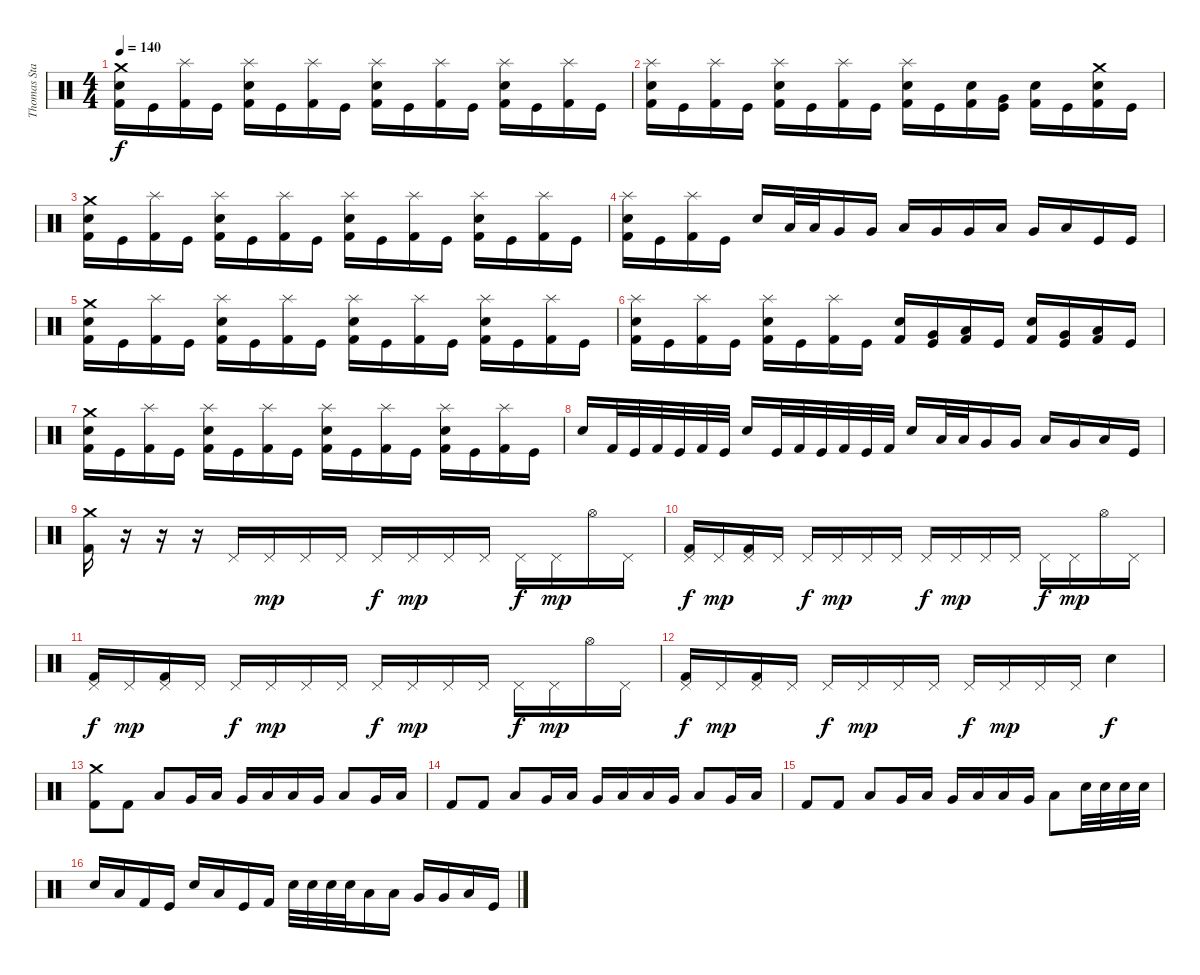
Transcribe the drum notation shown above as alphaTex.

\track ("Thomas Stauch" "Thomas Sta") {instrument percussion}
\staff {score}
\articulation defaults
\ts (4 4)
\tempo 140
\clef neutral
\ks c
("Crash medium (hit)" "Electric Snare (hit)" "Kick (hit) 2").16{dy f} "Kick (hit)".16 ("Splash (hit)" "Kick (hit) 2").16 "Kick (hit)".16 ("Splash (hit)" "Electric Snare (hit)" "Kick (hit) 2").16 "Kick (hit)".16 ("Splash (hit)" "Kick (hit) 2").16 "Kick (hit)".16 ("Splash (hit)" "Electric Snare (hit)" "Kick (hit) 2").16 "Kick (hit)".16 ("Splash (hit)" "Kick (hit) 2").16 "Kick (hit)".16 ("Splash (hit)" "Electric Snare (hit)" "Kick (hit) 2").16 "Kick (hit)".16 ("Splash (hit)" "Kick (hit) 2").16 "Kick (hit)".16 |
("Splash (hit)" "Electric Snare (hit)" "Kick (hit) 2").16 "Kick (hit)".16 ("Splash (hit)" "Kick (hit) 2").16 "Kick (hit)".16 ("Splash (hit)" "Electric Snare (hit)" "Kick (hit) 2").16 "Kick (hit)".16 ("Splash (hit)" "Kick (hit) 2").16 "Kick (hit)".16 ("Splash (hit)" "Electric Snare (hit)" "Kick (hit) 2").16 "Kick (hit)".16 ("Electric Snare (hit)" "Kick (hit) 2").16 ("Very Low Tom (hit)" "Kick (hit)").16 ("Electric Snare (hit)" "Kick (hit) 2").16 "Kick (hit)".16 ("Crash medium (hit)" "Electric Snare (hit)" "Kick (hit) 2").16 "Kick (hit)".16 |
("Crash medium (hit)" "Electric Snare (hit)" "Kick (hit) 2").16 "Kick (hit)".16 ("Splash (hit)" "Kick (hit) 2").16 "Kick (hit)".16 ("Splash (hit)" "Electric Snare (hit)" "Kick (hit) 2").16 "Kick (hit)".16 ("Splash (hit)" "Kick (hit) 2").16 "Kick (hit)".16 ("Splash (hit)" "Electric Snare (hit)" "Kick (hit) 2").16 "Kick (hit)".16 ("Splash (hit)" "Kick (hit) 2").16 "Kick (hit)".16 ("Splash (hit)" "Electric Snare (hit)" "Kick (hit) 2").16 "Kick (hit)".16 ("Splash (hit)" "Kick (hit) 2").16 "Kick (hit)".16 |
("Splash (hit)" "Electric Snare (hit)" "Kick (hit) 2").16 "Kick (hit)".16 ("Splash (hit)" "Kick (hit) 2").16 "Kick (hit)".16 "Electric Snare (hit)".16 "Low Tom (hit)".32 "Low Tom (hit)".32 "Very Low Tom (hit)".16 "Very Low Tom (hit)".16 "Low Tom (hit)".16 "Very Low Tom (hit)".16 "Very Low Tom (hit)".16 "Low Floor Tom (hit)".16 "Very Low Tom (hit)".16 "Low Floor Tom (hit)".16 "Kick (hit)".16 "Kick (hit)".16 |
("Crash medium (hit)" "Electric Snare (hit)" "Kick (hit) 2").16 "Kick (hit)".16 ("Splash (hit)" "Kick (hit) 2").16 "Kick (hit)".16 ("Splash (hit)" "Electric Snare (hit)" "Kick (hit) 2").16 "Kick (hit)".16 ("Splash (hit)" "Kick (hit) 2").16 "Kick (hit)".16 ("Splash (hit)" "Electric Snare (hit)" "Kick (hit) 2").16 "Kick (hit)".16 ("Splash (hit)" "Kick (hit) 2").16 "Kick (hit)".16 ("Splash (hit)" "Electric Snare (hit)" "Kick (hit) 2").16 "Kick (hit)".16 ("Splash (hit)" "Kick (hit) 2").16 "Kick (hit)".16 |
("Splash (hit)" "Electric Snare (hit)" "Kick (hit) 2").16 "Kick (hit)".16 ("Splash (hit)" "Kick (hit) 2").16 "Kick (hit)".16 ("Splash (hit)" "Electric Snare (hit)" "Kick (hit) 2").16 "Kick (hit)".16 ("Splash (hit)" "Kick (hit) 2").16 "Kick (hit)".16 ("Electric Snare (hit)" "Kick (hit) 2").16 ("Very Low Tom (hit)" "Kick (hit)").16 ("Low Floor Tom (hit)" "Kick (hit) 2").16 "Kick (hit)".16 ("Electric Snare (hit)" "Kick (hit) 2").16 ("Very Low Tom (hit)" "Kick (hit)").16 ("Low Floor Tom (hit)" "Kick (hit) 2").16 "Kick (hit)".16 |
("Crash medium (hit)" "Electric Snare (hit)" "Kick (hit) 2").16 "Kick (hit)".16 ("Splash (hit)" "Kick (hit) 2").16 "Kick (hit)".16 ("Splash (hit)" "Electric Snare (hit)" "Kick (hit) 2").16 "Kick (hit)".16 ("Splash (hit)" "Kick (hit) 2").16 "Kick (hit)".16 ("Splash (hit)" "Electric Snare (hit)" "Kick (hit) 2").16 "Kick (hit)".16 ("Splash (hit)" "Kick (hit) 2").16 "Kick (hit)".16 ("Splash (hit)" "Electric Snare (hit)" "Kick (hit) 2").16 "Kick (hit)".16 ("Splash (hit)" "Kick (hit) 2").16 "Kick (hit)".16 |
"Electric Snare (hit)".16 "Kick (hit) 2".32 "Kick (hit)".32 "Kick (hit) 2".32 "Kick (hit)".32 "Kick (hit) 2".32 "Kick (hit)".32 "Electric Snare (hit)".16 "Kick (hit)".32 "Kick (hit) 2".32 "Kick (hit)".32 "Kick (hit) 2".32 "Kick (hit)".32 "Kick (hit) 2".32 "Electric Snare (hit)".16 "Low Tom (hit)".32 "Low Tom (hit)".32 "Very Low Tom (hit)".16 "Very Low Tom (hit)".16 "Low Tom (hit)".16 "Very Low Tom (hit)".16 "Low Floor Tom (hit)".16 "Kick (hit)".16 |
("Crash medium (hit)" "Kick (hit) 2").16 r.16 r.16 r.16 "Pedal Hi-Hat (hit)".16 "Pedal Hi-Hat (hit)".16{dy mp} "Pedal Hi-Hat (hit)".16 "Pedal Hi-Hat (hit)".16 "Pedal Hi-Hat (hit)".16{dy f} "Pedal Hi-Hat (hit)".16{dy mp} "Pedal Hi-Hat (hit)".16 "Pedal Hi-Hat (hit)".16 "Pedal Hi-Hat (hit)".16{dy f} "Pedal Hi-Hat (hit)".16{dy mp} "Hi-Hat (open)".16 "Pedal Hi-Hat (hit)".16 |
("Pedal Hi-Hat (hit)" "Kick (hit) 2").16{dy f} "Pedal Hi-Hat (hit)".16{dy mp} ("Pedal Hi-Hat (hit)" "Kick (hit) 2").16 "Pedal Hi-Hat (hit)".16 "Pedal Hi-Hat (hit)".16{dy f} "Pedal Hi-Hat (hit)".16{dy mp} "Pedal Hi-Hat (hit)".16 "Pedal Hi-Hat (hit)".16 "Pedal Hi-Hat (hit)".16{dy f} "Pedal Hi-Hat (hit)".16{dy mp} "Pedal Hi-Hat (hit)".16 "Pedal Hi-Hat (hit)".16 "Pedal Hi-Hat (hit)".16{dy f} "Pedal Hi-Hat (hit)".16{dy mp} "Hi-Hat (open)".16 "Pedal Hi-Hat (hit)".16 |
("Pedal Hi-Hat (hit)" "Kick (hit) 2").16{dy f} "Pedal Hi-Hat (hit)".16{dy mp} ("Pedal Hi-Hat (hit)" "Kick (hit) 2").16 "Pedal Hi-Hat (hit)".16 "Pedal Hi-Hat (hit)".16{dy f} "Pedal Hi-Hat (hit)".16{dy mp} "Pedal Hi-Hat (hit)".16 "Pedal Hi-Hat (hit)".16 "Pedal Hi-Hat (hit)".16{dy f} "Pedal Hi-Hat (hit)".16{dy mp} "Pedal Hi-Hat (hit)".16 "Pedal Hi-Hat (hit)".16 "Pedal Hi-Hat (hit)".16{dy f} "Pedal Hi-Hat (hit)".16{dy mp} "Hi-Hat (open)".16 "Pedal Hi-Hat (hit)".16 |
("Pedal Hi-Hat (hit)" "Kick (hit) 2").16{dy f} "Pedal Hi-Hat (hit)".16{dy mp} ("Pedal Hi-Hat (hit)" "Kick (hit) 2").16 "Pedal Hi-Hat (hit)".16 "Pedal Hi-Hat (hit)".16{dy f} "Pedal Hi-Hat (hit)".16{dy mp} "Pedal Hi-Hat (hit)".16 "Pedal Hi-Hat (hit)".16 "Pedal Hi-Hat (hit)".16{dy f} "Pedal Hi-Hat (hit)".16{dy mp} "Pedal Hi-Hat (hit)".16 "Pedal Hi-Hat (hit)".16 "Electric Snare (hit)".4{dy f} |
("Crash medium (hit)" "Kick (hit) 2").8 "Kick (hit) 2".8 "Low Tom (hit)".8 "Very Low Tom (hit)".16 "Low Tom (hit)".16 "Very Low Tom (hit)".16 "Low Tom (hit)".16 "Low Tom (hit)".16 "Very Low Tom (hit)".16 "Low Tom (hit)".8 "Very Low Tom (hit)".16 "Low Floor Tom (hit)".16 |
"Kick (hit) 2".8 "Kick (hit) 2".8 "Low Tom (hit)".8 "Very Low Tom (hit)".16 "Low Tom (hit)".16 "Very Low Tom (hit)".16 "Low Tom (hit)".16 "Low Tom (hit)".16 "Very Low Tom (hit)".16 "Low Tom (hit)".8 "Very Low Tom (hit)".16 "Low Floor Tom (hit)".16 |
"Kick (hit) 2".8 "Kick (hit) 2".8 "Low Tom (hit)".8 "Very Low Tom (hit)".16 "Low Tom (hit)".16 "Very Low Tom (hit)".16 "Low Tom (hit)".16 "Low Tom (hit)".16 "Very Low Tom (hit)".16 "Low Tom (hit)".8 "Electric Snare (hit)".32 "Electric Snare (hit)".32 "Electric Snare (hit)".32 "Electric Snare (hit)".32 |
"Electric Snare (hit)".16 "Low Tom (hit)".16 "Kick (hit) 2".16 "Kick (hit)".16 "Electric Snare (hit)".16 "Low Tom (hit)".16 "Kick (hit)".16 "Kick (hit) 2".16 "Electric Snare (hit)".32 "Electric Snare (hit)".32 "Electric Snare (hit)".32 "Electric Snare (hit)".32 "Low Tom (hit)".16 "Low Tom (hit)".16 "Very Low Tom (hit)".16 "Very Low Tom (hit)".16 "Low Floor Tom (hit)".16 "Kick (hit)".16
